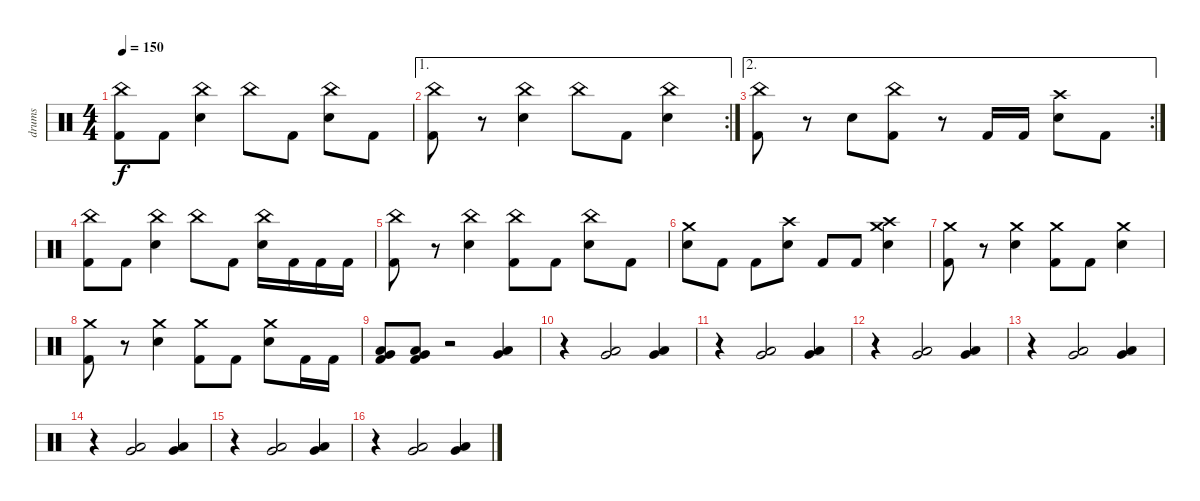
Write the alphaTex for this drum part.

\track ("drums" "drums") {instrument percussion}
\staff {score}
\articulation defaults
\ts (4 4)
\tempo 150
\clef neutral
\ks c
("China (hit)" "Kick (hit) 2").8{dy f} "Kick (hit) 2".8 ("China (hit)" "Electric Snare (hit)").4 "China (hit)".8 "Kick (hit) 2".8 ("China (hit)" "Electric Snare (hit)").8 "Kick (hit) 2".8 |
\ae 1
\rc 2
("China (hit)" "Kick (hit) 2").8 r.8 ("China (hit)" "Electric Snare (hit)").4 "China (hit)".8 "Kick (hit) 2".8 ("China (hit)" "Electric Snare (hit)").4 |
\ae 2
\rc 2
("China (hit)" "Kick (hit) 2").8 r.8 "Electric Snare (hit)".8 ("China (hit)" "Kick (hit) 2").8 r.8 "Kick (hit) 2".16 "Kick (hit) 2".16 ("Crash high (hit)" "Electric Snare (hit)").8 "Kick (hit) 2".8 |
("China (hit)" "Kick (hit) 2").8 "Kick (hit) 2".8 ("China (hit)" "Electric Snare (hit)").4 "China (hit)".8 "Kick (hit) 2".8 ("China (hit)" "Electric Snare (hit)").16 "Kick (hit) 2".16 "Kick (hit) 2".16 "Kick (hit) 2".16 |
("China (hit)" "Kick (hit) 2").8 r.8 ("China (hit)" "Electric Snare (hit)").4 ("China (hit)" "Kick (hit) 2").8 "Kick (hit) 2".8 ("China (hit)" "Electric Snare (hit)").8 "Kick (hit) 2".8 |
("Crash medium (hit)" "Electric Snare (hit)").8 "Kick (hit) 2".8 "Kick (hit) 2".8 ("Crash high (hit)" "Electric Snare (hit)").8 "Kick (hit) 2".8 "Kick (hit) 2".8 ("Crash high (hit)" "Crash medium (hit)" "Electric Snare (hit)").4 |
("Crash medium (hit)" "Kick (hit) 2").8 r.8 ("Crash medium (hit)" "Electric Snare (hit)").4 ("Crash medium (hit)" "Kick (hit) 2").8 "Kick (hit) 2".8 ("Crash medium (hit)" "Electric Snare (hit)").4 |
("Crash medium (hit)" "Kick (hit) 2").8 r.8 ("Crash medium (hit)" "Electric Snare (hit)").4 ("Crash medium (hit)" "Kick (hit) 2").8 "Kick (hit) 2".8 ("Crash medium (hit)" "Electric Snare (hit)").8 "Kick (hit) 2".16 "Kick (hit) 2".16 |
("Very Low Tom (hit)" "Low Tom (hit)" "Kick (hit) 2").8 ("Very Low Tom (hit)" "Low Tom (hit)" "Kick (hit) 2").8 r.2 ("Very Low Tom (hit)" "Low Tom (hit)").4 |
r.4 ("Very Low Tom (hit)" "Low Tom (hit)").2 ("Very Low Tom (hit)" "Low Tom (hit)").4 |
r.4 ("Very Low Tom (hit)" "Low Tom (hit)").2 ("Very Low Tom (hit)" "Low Tom (hit)").4 |
r.4 ("Very Low Tom (hit)" "Low Tom (hit)").2 ("Very Low Tom (hit)" "Low Tom (hit)").4 |
r.4 ("Very Low Tom (hit)" "Low Tom (hit)").2 ("Very Low Tom (hit)" "Low Tom (hit)").4 |
r.4 ("Very Low Tom (hit)" "Low Tom (hit)").2 ("Very Low Tom (hit)" "Low Tom (hit)").4 |
r.4 ("Very Low Tom (hit)" "Low Tom (hit)").2 ("Very Low Tom (hit)" "Low Tom (hit)").4 |
r.4 ("Very Low Tom (hit)" "Low Tom (hit)").2 ("Very Low Tom (hit)" "Low Tom (hit)").4
